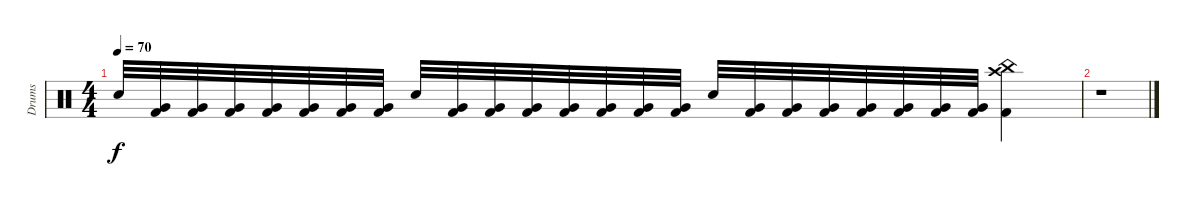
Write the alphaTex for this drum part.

\track ("Drums" "Drums") {instrument percussion}
\staff {score}
\articulation defaults
\ts (4 4)
\tempo 70
\clef neutral
\ks c "Electric Snare (hit)".32{dy f}
("Kick (hit) 2" "Very Low Tom (hit)").32 ("Kick (hit) 2" "Very Low Tom (hit)").32 ("Kick (hit) 2" "Very Low Tom (hit)").32 ("Kick (hit) 2" "Very Low Tom (hit)").32 ("Kick (hit) 2" "Very Low Tom (hit)").32 ("Kick (hit) 2" "Very Low Tom (hit)").32 ("Kick (hit) 2" "Very Low Tom (hit)").32 "Electric Snare (hit)".32 ("Kick (hit) 2" "Very Low Tom (hit)").32 ("Kick (hit) 2" "Very Low Tom (hit)").32 ("Kick (hit) 2" "Very Low Tom (hit)").32 ("Kick (hit) 2" "Very Low Tom (hit)").32 ("Kick (hit) 2" "Very Low Tom (hit)").32 ("Kick (hit) 2" "Very Low Tom (hit)").32 ("Kick (hit) 2" "Very Low Tom (hit)").32 "Electric Snare (hit)".32 ("Kick (hit) 2" "Very Low Tom (hit)").32 ("Kick (hit) 2" "Very Low Tom (hit)").32 ("Kick (hit) 2" "Very Low Tom (hit)").32 ("Kick (hit) 2" "Very Low Tom (hit)").32 ("Kick (hit) 2" "Very Low Tom (hit)").32 ("Kick (hit) 2" "Very Low Tom (hit)").32 ("Kick (hit) 2" "Very Low Tom (hit)").32 ("Kick (hit) 2" "China (hit)" "Crash high (hit)").4 |
r.1
